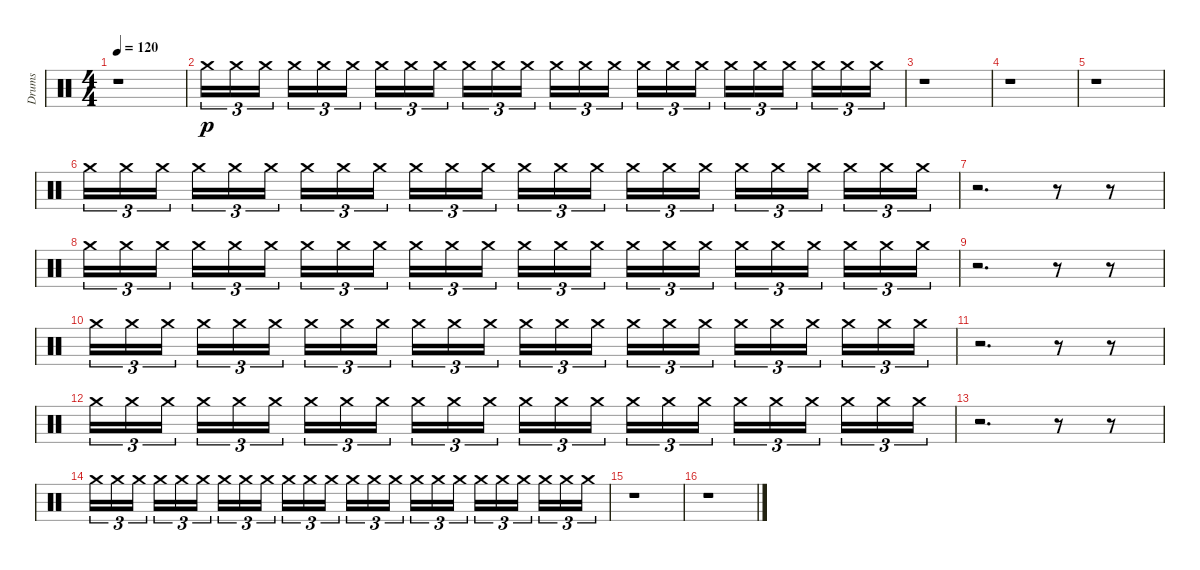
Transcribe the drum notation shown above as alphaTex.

\track ("Drums" "Drums") {instrument percussion}
\staff {score}
\articulation defaults
\ts (4 4)
\tempo 120
\clef neutral
\ks c
r.1{dy p volume 0} |
"Crash medium (hit)".16{tu (3 2) volume 16} "Crash medium (hit)".16{tu (3 2)} "Crash medium (hit)".16{tu (3 2)} "Crash medium (hit)".16{tu (3 2)} "Crash medium (hit)".16{tu (3 2)} "Crash medium (hit)".16{tu (3 2)} "Crash medium (hit)".16{tu (3 2)} "Crash medium (hit)".16{tu (3 2)} "Crash medium (hit)".16{tu (3 2)} "Crash medium (hit)".16{tu (3 2)} "Crash medium (hit)".16{tu (3 2)} "Crash medium (hit)".16{tu (3 2)} "Crash medium (hit)".16{tu (3 2)} "Crash medium (hit)".16{tu (3 2)} "Crash medium (hit)".16{tu (3 2)} "Crash medium (hit)".16{tu (3 2)} "Crash medium (hit)".16{tu (3 2)} "Crash medium (hit)".16{tu (3 2)} "Crash medium (hit)".16{tu (3 2)} "Crash medium (hit)".16{tu (3 2)} "Crash medium (hit)".16{tu (3 2)} "Crash medium (hit)".16{tu (3 2)} "Crash medium (hit)".16{tu (3 2)} "Crash medium (hit)".16{tu (3 2)} |
r.1 |
r.1 |
r.1{volume 0} |
"Crash medium (hit)".16{tu (3 2) volume 16} "Crash medium (hit)".16{tu (3 2)} "Crash medium (hit)".16{tu (3 2)} "Crash medium (hit)".16{tu (3 2)} "Crash medium (hit)".16{tu (3 2)} "Crash medium (hit)".16{tu (3 2)} "Crash medium (hit)".16{tu (3 2)} "Crash medium (hit)".16{tu (3 2)} "Crash medium (hit)".16{tu (3 2)} "Crash medium (hit)".16{tu (3 2)} "Crash medium (hit)".16{tu (3 2)} "Crash medium (hit)".16{tu (3 2)} "Crash medium (hit)".16{tu (3 2)} "Crash medium (hit)".16{tu (3 2)} "Crash medium (hit)".16{tu (3 2)} "Crash medium (hit)".16{tu (3 2)} "Crash medium (hit)".16{tu (3 2)} "Crash medium (hit)".16{tu (3 2)} "Crash medium (hit)".16{tu (3 2)} "Crash medium (hit)".16{tu (3 2)} "Crash medium (hit)".16{tu (3 2)} "Crash medium (hit)".16{tu (3 2)} "Crash medium (hit)".16{tu (3 2)} "Crash medium (hit)".16{tu (3 2)} |
r.2{d} r.8 r.8{volume 4} |
"Crash medium (hit)".16{tu (3 2) volume 16} "Crash medium (hit)".16{tu (3 2)} "Crash medium (hit)".16{tu (3 2)} "Crash medium (hit)".16{tu (3 2)} "Crash medium (hit)".16{tu (3 2)} "Crash medium (hit)".16{tu (3 2)} "Crash medium (hit)".16{tu (3 2)} "Crash medium (hit)".16{tu (3 2)} "Crash medium (hit)".16{tu (3 2)} "Crash medium (hit)".16{tu (3 2)} "Crash medium (hit)".16{tu (3 2)} "Crash medium (hit)".16{tu (3 2)} "Crash medium (hit)".16{tu (3 2)} "Crash medium (hit)".16{tu (3 2)} "Crash medium (hit)".16{tu (3 2)} "Crash medium (hit)".16{tu (3 2)} "Crash medium (hit)".16{tu (3 2)} "Crash medium (hit)".16{tu (3 2)} "Crash medium (hit)".16{tu (3 2)} "Crash medium (hit)".16{tu (3 2)} "Crash medium (hit)".16{tu (3 2)} "Crash medium (hit)".16{tu (3 2)} "Crash medium (hit)".16{tu (3 2)} "Crash medium (hit)".16{tu (3 2)} |
r.2{d} r.8 r.8{volume 4} |
"Crash medium (hit)".16{tu (3 2) volume 16} "Crash medium (hit)".16{tu (3 2)} "Crash medium (hit)".16{tu (3 2)} "Crash medium (hit)".16{tu (3 2)} "Crash medium (hit)".16{tu (3 2)} "Crash medium (hit)".16{tu (3 2)} "Crash medium (hit)".16{tu (3 2)} "Crash medium (hit)".16{tu (3 2)} "Crash medium (hit)".16{tu (3 2)} "Crash medium (hit)".16{tu (3 2)} "Crash medium (hit)".16{tu (3 2)} "Crash medium (hit)".16{tu (3 2)} "Crash medium (hit)".16{tu (3 2)} "Crash medium (hit)".16{tu (3 2)} "Crash medium (hit)".16{tu (3 2)} "Crash medium (hit)".16{tu (3 2)} "Crash medium (hit)".16{tu (3 2)} "Crash medium (hit)".16{tu (3 2)} "Crash medium (hit)".16{tu (3 2)} "Crash medium (hit)".16{tu (3 2)} "Crash medium (hit)".16{tu (3 2)} "Crash medium (hit)".16{tu (3 2)} "Crash medium (hit)".16{tu (3 2)} "Crash medium (hit)".16{tu (3 2)} |
r.2{d} r.8 r.8{volume 4} |
"Crash medium (hit)".16{tu (3 2) volume 16} "Crash medium (hit)".16{tu (3 2)} "Crash medium (hit)".16{tu (3 2)} "Crash medium (hit)".16{tu (3 2)} "Crash medium (hit)".16{tu (3 2)} "Crash medium (hit)".16{tu (3 2)} "Crash medium (hit)".16{tu (3 2)} "Crash medium (hit)".16{tu (3 2)} "Crash medium (hit)".16{tu (3 2)} "Crash medium (hit)".16{tu (3 2)} "Crash medium (hit)".16{tu (3 2)} "Crash medium (hit)".16{tu (3 2)} "Crash medium (hit)".16{tu (3 2)} "Crash medium (hit)".16{tu (3 2)} "Crash medium (hit)".16{tu (3 2)} "Crash medium (hit)".16{tu (3 2)} "Crash medium (hit)".16{tu (3 2)} "Crash medium (hit)".16{tu (3 2)} "Crash medium (hit)".16{tu (3 2)} "Crash medium (hit)".16{tu (3 2)} "Crash medium (hit)".16{tu (3 2)} "Crash medium (hit)".16{tu (3 2)} "Crash medium (hit)".16{tu (3 2)} "Crash medium (hit)".16{tu (3 2)} |
r.2{d} r.8 r.8{volume 4} |
"Crash medium (hit)".16{tu (3 2) volume 16} "Crash medium (hit)".16{tu (3 2)} "Crash medium (hit)".16{tu (3 2)} "Crash medium (hit)".16{tu (3 2)} "Crash medium (hit)".16{tu (3 2)} "Crash medium (hit)".16{tu (3 2)} "Crash medium (hit)".16{tu (3 2)} "Crash medium (hit)".16{tu (3 2)} "Crash medium (hit)".16{tu (3 2)} "Crash medium (hit)".16{tu (3 2)} "Crash medium (hit)".16{tu (3 2)} "Crash medium (hit)".16{tu (3 2)} "Crash medium (hit)".16{tu (3 2)} "Crash medium (hit)".16{tu (3 2)} "Crash medium (hit)".16{tu (3 2)} "Crash medium (hit)".16{tu (3 2)} "Crash medium (hit)".16{tu (3 2)} "Crash medium (hit)".16{tu (3 2)} "Crash medium (hit)".16{tu (3 2)} "Crash medium (hit)".16{tu (3 2)} "Crash medium (hit)".16{tu (3 2)} "Crash medium (hit)".16{tu (3 2)} "Crash medium (hit)".16{tu (3 2)} "Crash medium (hit)".16{tu (3 2)} |
r.1 |
r.1
